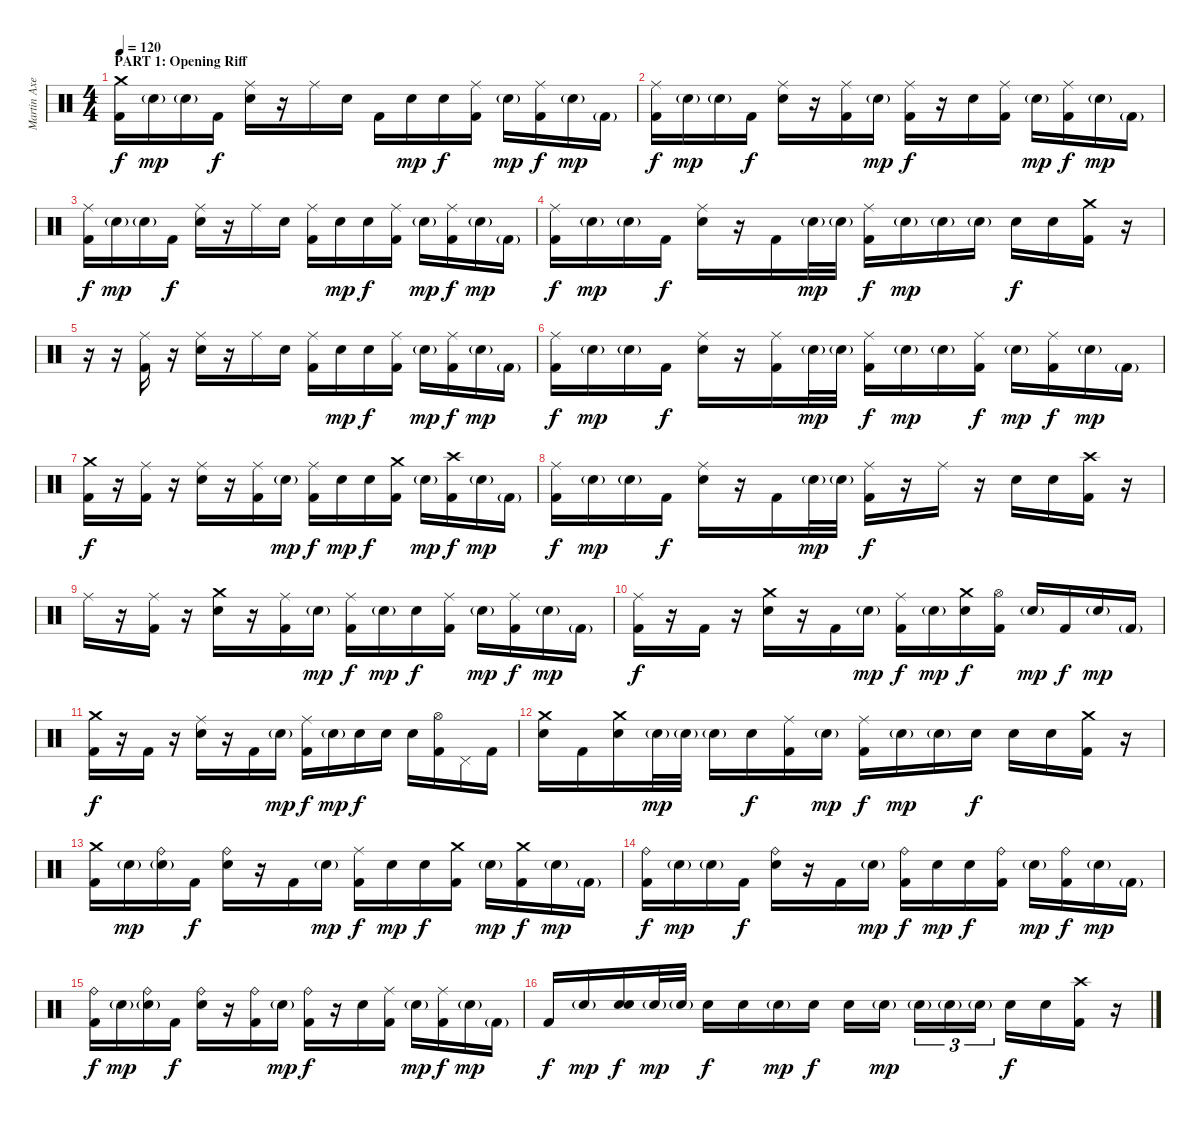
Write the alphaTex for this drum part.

\track ("Martin Axenrot - Drums" "Martin Axe") {instrument percussion}
\staff {score}
\articulation defaults
\ts (4 4)
\section ("" "PART 1: Opening Riff")
\tempo 120
\clef neutral
\ks c
("Crash medium (hit)" "Kick (hit) 2").16{dy f} "Snare (hit) 2"{g}.16{dy mp} "Snare (hit) 2"{g}.16 "Kick (hit) 2".16{dy f} ("Ride (middle)" "Snare (hit) 2").16 r.16 "Ride (middle)".16 "Snare (hit) 2".16 "Kick (hit) 2".16 "Snare (hit) 2".16{dy mp} "Snare (hit) 2".16{dy f} ("Ride (middle)" "Kick (hit) 2").16 "Snare (hit) 2"{g}.16{dy mp} ("Ride (middle)" "Kick (hit) 2").16{dy f} "Snare (hit) 2"{g}.16{dy mp} "Kick (hit) 2"{g}.16 |
("Ride (middle)" "Kick (hit) 2").16{dy f} "Snare (hit) 2"{g}.16{dy mp} "Snare (hit) 2"{g}.16 "Kick (hit) 2".16{dy f} ("Ride (middle)" "Snare (hit) 2").16 r.16 ("Ride (middle)" "Kick (hit) 2").16 "Snare (hit) 2"{g}.16{dy mp} ("Ride (middle)" "Kick (hit) 2").16{dy f} r.16 "Snare (hit) 2".16 ("Ride (middle)" "Kick (hit) 2").16 "Snare (hit) 2"{g}.16{dy mp} ("Ride (middle)" "Kick (hit) 2").16{dy f} "Snare (hit) 2"{g}.16{dy mp} "Kick (hit) 2"{g}.16 |
("Ride (middle)" "Kick (hit) 2").16{dy f} "Snare (hit) 2"{g}.16{dy mp} "Snare (hit) 2"{g}.16 "Kick (hit) 2".16{dy f} ("Ride (middle)" "Snare (hit) 2").16 r.16 "Ride (middle)".16 "Snare (hit) 2".16 ("Ride (middle)" "Kick (hit) 2").16 "Snare (hit) 2".16{dy mp} "Snare (hit) 2".16{dy f} ("Ride (middle)" "Kick (hit) 2").16 "Snare (hit) 2"{g}.16{dy mp} ("Ride (middle)" "Kick (hit) 2").16{dy f} "Snare (hit) 2"{g}.16{dy mp} "Kick (hit) 2"{g}.16 |
("Ride (middle)" "Kick (hit) 2").16{dy f} "Snare (hit) 2"{g}.16{dy mp} "Snare (hit) 2"{g}.16 "Kick (hit) 2".16{dy f} ("Ride (middle)" "Snare (hit) 2").16 r.16 "Kick (hit) 2".16 "Snare (hit) 2"{g}.32{dy mp} "Snare (hit) 2"{g}.32 ("Ride (middle)" "Kick (hit) 2").16{dy f} "Snare (hit) 2"{g}.16{dy mp} "Snare (hit) 2"{g}.16 "Snare (hit) 2"{g}.16 "Snare (hit) 2".16{dy f} "Snare (hit) 2".16 ("Crash medium (hit)" "Kick (hit) 2").16 r.16 |
r.16 r.16 ("Ride (middle)" "Kick (hit) 2").16 r.16 ("Ride (middle)" "Snare (hit) 2").16 r.16 "Ride (middle)".16 "Snare (hit) 2".16 ("Ride (middle)" "Kick (hit) 2").16 "Snare (hit) 2".16{dy mp} "Snare (hit) 2".16{dy f} ("Ride (middle)" "Kick (hit) 2").16 "Snare (hit) 2"{g}.16{dy mp} ("Ride (middle)" "Kick (hit) 2").16{dy f} "Snare (hit) 2"{g}.16{dy mp} "Kick (hit) 2"{g}.16 |
("Ride (middle)" "Kick (hit) 2").16{dy f} "Snare (hit) 2"{g}.16{dy mp} "Snare (hit) 2"{g}.16 "Kick (hit) 2".16{dy f} ("Ride (middle)" "Snare (hit) 2").16 r.16 ("Ride (middle)" "Kick (hit) 2").16 "Snare (hit) 2"{g}.32{dy mp} "Snare (hit) 2"{g}.32 ("Ride (middle)" "Kick (hit) 2").16{dy f} "Snare (hit) 2"{g}.16{dy mp} "Snare (hit) 2"{g}.16 ("Ride (middle)" "Kick (hit) 2").16{dy f} "Snare (hit) 2"{g}.16{dy mp} ("Ride (middle)" "Kick (hit) 2").16{dy f} "Snare (hit) 2"{g}.16{dy mp} "Kick (hit) 2"{g}.16 |
("Crash medium (hit)" "Kick (hit) 2").16{dy f} r.16 ("Ride (middle)" "Kick (hit) 2").16 r.16 ("Ride (middle)" "Snare (hit) 2").16 r.16 ("Ride (middle)" "Kick (hit) 2").16 "Snare (hit) 2"{g}.16{dy mp} ("Ride (middle)" "Kick (hit) 2").16{dy f} "Snare (hit) 2".16{dy mp} "Snare (hit) 2".16{dy f} ("Crash medium (hit)" "Kick (hit) 2").16 "Snare (hit) 2"{g}.16{dy mp} ("Crash high (hit)" "Kick (hit) 2").16{dy f} "Snare (hit) 2"{g}.16{dy mp} "Kick (hit) 2"{g}.16 |
("Ride (middle)" "Kick (hit) 2").16{dy f} "Snare (hit) 2"{g}.16{dy mp} "Snare (hit) 2"{g}.16 "Kick (hit) 2".16{dy f} ("Ride (middle)" "Snare (hit) 2").16 r.16 "Kick (hit) 2".16 "Snare (hit) 2"{g}.32{dy mp} "Snare (hit) 2"{g}.32 ("Ride (middle)" "Kick (hit) 2").16{dy f} r.16 "Ride (middle)".16 r.16 "Snare (hit) 2".16 "Snare (hit) 2".16 ("Crash high (hit)" "Kick (hit) 2").16 r.16 |
"Ride (middle)".16 r.16 ("Ride (middle)" "Kick (hit) 2").16 r.16 ("Crash medium (hit)" "Snare (hit) 2").16 r.16 ("Ride (middle)" "Kick (hit) 2").16 "Snare (hit) 2"{g}.16{dy mp} ("Ride (middle)" "Kick (hit) 2").16{dy f} "Snare (hit) 2"{g}.16{dy mp} "Snare (hit) 2".16{dy f} ("Ride (middle)" "Kick (hit) 2").16 "Snare (hit) 2"{g}.16{dy mp} ("Ride (middle)" "Kick (hit) 2").16{dy f} "Snare (hit) 2"{g}.16{dy mp} "Kick (hit) 2"{g}.16 |
("Ride (middle)" "Kick (hit) 2").16{dy f} r.16 "Kick (hit) 2".16 r.16 ("Crash medium (hit)" "Snare (hit) 2").16 r.16 "Kick (hit) 2".16 "Snare (hit) 2"{g}.16{dy mp} ("Ride (middle)" "Kick (hit) 2").16{dy f} "Snare (hit) 2"{g}.16{dy mp} ("Crash medium (hit)" "Snare (hit) 2").16{dy f} ("Hi-Hat (open)" "Kick (hit) 2").16 "Snare (hit) 2"{g}.16{dy mp} "Kick (hit) 2".16{dy f} "Snare (hit) 2"{g}.16{dy mp} "Kick (hit) 2"{g}.16 |
("Crash medium (hit)" "Kick (hit) 2").16{dy f} r.16 "Kick (hit) 2".16 r.16 ("Ride (middle)" "Snare (hit) 2").16 r.16 "Kick (hit) 2".16 "Snare (hit) 2"{g}.16{dy mp} ("Ride (middle)" "Kick (hit) 2").16{dy f} "Snare (hit) 2"{g}.16{dy mp} "Snare (hit) 2".16{dy f} "Snare (hit) 2".16 "Snare (hit) 2".16 ("Hi-Hat (open)" "Kick (hit) 2").16 "Pedal Hi-Hat (hit)".16 "Kick (hit) 2".16 |
("Crash medium (hit)" "Snare (hit) 2").16 "Kick (hit) 2".16 ("Crash medium (hit)" "Snare (hit) 2").16 "Snare (hit) 2"{g}.32{dy mp} "Snare (hit) 2"{g}.32 "Snare (hit) 2"{g}.16 "Snare (hit) 2".16{dy f} ("Ride (middle)" "Kick (hit) 2").16 "Snare (hit) 2"{g}.16{dy mp} ("Ride (middle)" "Kick (hit) 2").16{dy f} "Snare (hit) 2"{g}.16{dy mp} "Snare (hit) 2"{g}.16 "Snare (hit) 2".16{dy f} "Snare (hit) 2".16 "Snare (hit) 2".16 ("Crash medium (hit)" "Kick (hit) 2").16 r.16 |
("Crash medium (hit)" "Kick (hit) 2").16 "Snare (hit) 2"{g}.16{dy mp} ("Ride (bell)" "Snare (hit) 2"{g}).16 "Kick (hit) 2".16{dy f} ("Ride (bell)" "Snare (hit) 2").16 r.16 "Kick (hit) 2".16 "Snare (hit) 2"{g}.16{dy mp} ("Ride (middle)" "Kick (hit) 2").16{dy f} "Snare (hit) 2".16{dy mp} "Snare (hit) 2".16{dy f} ("Crash medium (hit)" "Kick (hit) 2").16 "Snare (hit) 2"{g}.16{dy mp} ("Crash medium (hit)" "Kick (hit) 2").16{dy f} "Snare (hit) 2"{g}.16{dy mp} "Kick (hit) 2"{g}.16 |
("Ride (bell)" "Kick (hit) 2").16{dy f} "Snare (hit) 2"{g}.16{dy mp} "Snare (hit) 2"{g}.16 "Kick (hit) 2".16{dy f} ("Ride (bell)" "Snare (hit) 2").16 r.16 "Kick (hit) 2".16 "Snare (hit) 2"{g}.16{dy mp} ("Ride (bell)" "Kick (hit) 2").16{dy f} "Snare (hit) 2".16{dy mp} "Snare (hit) 2".16{dy f} ("Ride (bell)" "Kick (hit) 2").16 "Snare (hit) 2"{g}.16{dy mp} ("Ride (bell)" "Kick (hit) 2").16{dy f} "Snare (hit) 2"{g}.16{dy mp} "Kick (hit) 2"{g}.16 |
("Ride (bell)" "Kick (hit) 2").16{dy f} "Snare (hit) 2"{g}.16{dy mp} ("Ride (bell)" "Snare (hit) 2"{g}).16 "Kick (hit) 2".16{dy f} ("Ride (bell)" "Snare (hit) 2").16 r.16 ("Ride (bell)" "Kick (hit) 2").16 "Snare (hit) 2"{g}.16{dy mp} ("Ride (bell)" "Kick (hit) 2").16{dy f} r.16 "Snare (hit) 2".16 ("Ride (middle)" "Kick (hit) 2").16 "Snare (hit) 2"{g}.16{dy mp} ("Ride (middle)" "Kick (hit) 2").16{dy f} "Snare (hit) 2"{g}.16{dy mp} "Kick (hit) 2"{g}.16 |
"Kick (hit) 2".16{dy f} "Snare (hit) 2"{g}.16{dy mp} ("Snare (hit) 2" "Snare (hit) 2").16{bd 60 dy f} "Snare (hit) 2"{g}.32{dy mp} "Snare (hit) 2"{g}.32 "Snare (hit) 2".16{dy f} "Snare (hit) 2".16 "Snare (hit) 2"{g}.16{dy mp} "Snare (hit) 2".16{dy f} "Snare (hit) 2".16 "Snare (hit) 2"{g}.16{dy mp beam splitsecondary} "Snare (hit) 2"{g}.16{tu (3 2)} "Snare (hit) 2"{g}.16{tu (3 2)} "Snare (hit) 2"{g}.16{tu (3 2)} "Snare (hit) 2".16{dy f} "Snare (hit) 2".16 ("Crash high (hit)" "Kick (hit) 2").16 r.16
